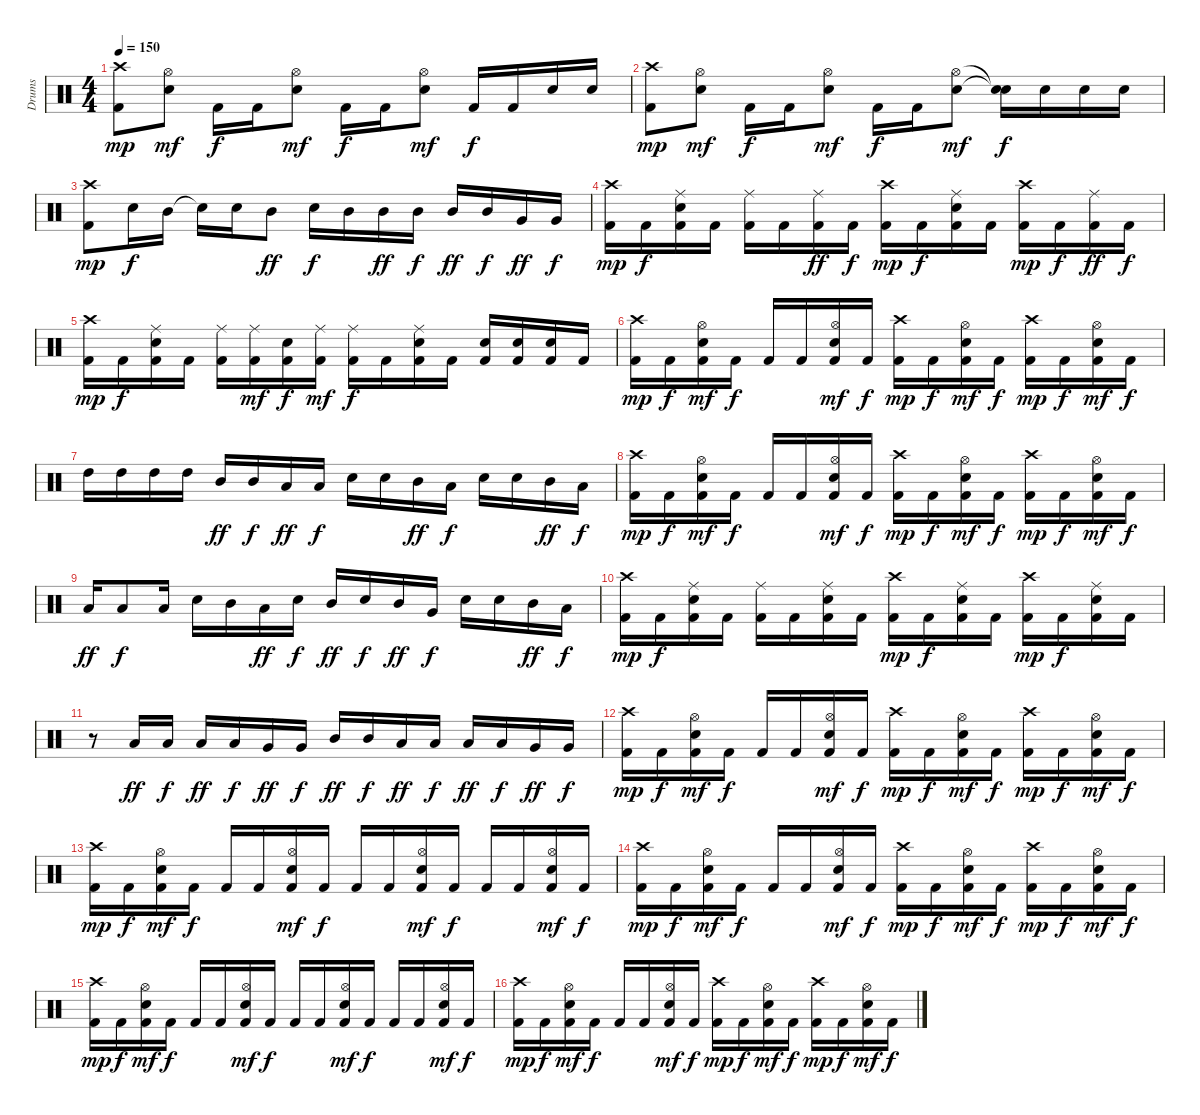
\track ("Drums" "Drums") {instrument percussion}
\staff {score}
\articulation defaults
\ts (4 4)
\tempo 150
\clef neutral
\ks c
("Crash high (hit)" "Kick (hit) 2").8{dy mp} ("Hi-Hat (open)" "Electric Snare (hit)").8{dy mf} "Kick (hit) 2".16{dy f} "Kick (hit) 2".16 ("Hi-Hat (open)" "Electric Snare (hit)").8{dy mf} "Kick (hit) 2".16{dy f} "Kick (hit) 2".16 ("Hi-Hat (open)" "Electric Snare (hit)").8{dy mf} "Kick (hit) 2".16{dy f} "Kick (hit) 2".16 "Electric Snare (hit)".16 "Electric Snare (hit)".16 |
("Crash high (hit)" "Kick (hit) 2").8{dy mp} ("Hi-Hat (open)" "Electric Snare (hit)").8{dy mf} "Kick (hit) 2".16{dy f} "Kick (hit) 2".16 ("Hi-Hat (open)" "Electric Snare (hit)").8{dy mf} "Kick (hit) 2".16{dy f} "Kick (hit) 2".16 ("Hi-Hat (open)" "Electric Snare (hit)").8{dy mf} ("Snare (hit)"{t} "Snare (hit)"{t}).16{dy f} "Electric Snare (hit)".16 "Electric Snare (hit)".16 "Electric Snare (hit)".16 |
("Crash high (hit)" "Kick (hit) 2").8{dy mp} "Electric Snare (hit)".16{dy f} "Mid Tom (hit)".16 "Snare (hit)"{t}.16 "Electric Snare (hit)".16 "Mid Tom (hit)".8{dy ff} "Electric Snare (hit)".16{dy f} "Mid Tom (hit)".16 "Mid Tom (hit)".16{dy ff} "Mid Tom (hit)".16{dy f} "Mid Tom (hit)".16{dy ff} "Mid Tom (hit)".16{dy f} "Very Low Tom (hit)".16{dy ff} "Very Low Tom (hit)".16{dy f} |
("Crash high (hit)" "Kick (hit) 2").16{dy mp} "Kick (hit) 2".16{dy f} ("Ride (middle)" "Electric Snare (hit)" "Kick (hit) 2").16 "Kick (hit) 2".16 ("Ride (middle)" "Kick (hit) 2").16 "Kick (hit) 2".16 ("Ride (middle)" "Kick (hit) 2").16{dy ff} "Kick (hit) 2".16{dy f} ("Crash high (hit)" "Kick (hit) 2").16{dy mp} "Kick (hit) 2".16{dy f} ("Ride (middle)" "Electric Snare (hit)" "Kick (hit) 2").16 "Kick (hit) 2".16 ("Crash high (hit)" "Kick (hit) 2").16{dy mp} "Kick (hit) 2".16{dy f} ("Ride (middle)" "Kick (hit) 2").16{dy ff} "Kick (hit) 2".16{dy f} |
("Crash high (hit)" "Kick (hit) 2").16{dy mp} "Kick (hit) 2".16{dy f} ("Ride (middle)" "Electric Snare (hit)" "Kick (hit) 2").16 "Kick (hit) 2".16 ("Ride (middle)" "Kick (hit) 2").16 ("Ride (middle)" "Kick (hit) 2").16{dy mf} ("Electric Snare (hit)" "Kick (hit) 2").16{dy f} ("Ride (middle)" "Kick (hit) 2").16{dy mf} ("Ride (middle)" "Kick (hit) 2").16{dy f} "Kick (hit) 2".16 ("Ride (middle)" "Electric Snare (hit)" "Kick (hit) 2").16 "Kick (hit) 2".16 ("Electric Snare (hit)" "Kick (hit) 2").16 ("Electric Snare (hit)" "Kick (hit) 2").16 ("Electric Snare (hit)" "Kick (hit) 2").16 "Kick (hit) 2".16 |
("Crash high (hit)" "Kick (hit) 2").16{dy mp} "Kick (hit) 2".16{dy f} ("Hi-Hat (open)" "Electric Snare (hit)" "Kick (hit) 2").16{dy mf} "Kick (hit) 2".16{dy f} "Kick (hit) 2".16 "Kick (hit) 2".16 ("Hi-Hat (open)" "Electric Snare (hit)" "Kick (hit) 2").16{dy mf} "Kick (hit) 2".16{dy f} ("Crash high (hit)" "Kick (hit) 2").16{dy mp} "Kick (hit) 2".16{dy f} ("Hi-Hat (open)" "Electric Snare (hit)" "Kick (hit) 2").16{dy mf} "Kick (hit) 2".16{dy f} ("Crash high (hit)" "Kick (hit) 2").16{dy mp} "Kick (hit) 2".16{dy f} ("Hi-Hat (open)" "Electric Snare (hit)" "Kick (hit) 2").16{dy mf} "Kick (hit) 2".16{dy f} |
"High Tom (hit)".16 "High Tom (hit)".16 "High Tom (hit)".16 "High Tom (hit)".16 "Mid Tom (hit)".16{dy ff} "Mid Tom (hit)".16{dy f} "Low Tom (hit)".16{dy ff} "Low Tom (hit)".16{dy f} "Electric Snare (hit)".16 "Electric Snare (hit)".16 "Mid Tom (hit)".16{dy ff} "Low Tom (hit)".16{dy f} "Electric Snare (hit)".16 "Electric Snare (hit)".16 "Mid Tom (hit)".16{dy ff} "Low Tom (hit)".16{dy f} |
("Crash high (hit)" "Kick (hit) 2").16{dy mp} "Kick (hit) 2".16{dy f} ("Hi-Hat (open)" "Electric Snare (hit)" "Kick (hit) 2").16{dy mf} "Kick (hit) 2".16{dy f} "Kick (hit) 2".16 "Kick (hit) 2".16 ("Hi-Hat (open)" "Electric Snare (hit)" "Kick (hit) 2").16{dy mf} "Kick (hit) 2".16{dy f} ("Crash high (hit)" "Kick (hit) 2").16{dy mp} "Kick (hit) 2".16{dy f} ("Hi-Hat (open)" "Electric Snare (hit)" "Kick (hit) 2").16{dy mf} "Kick (hit) 2".16{dy f} ("Crash high (hit)" "Kick (hit) 2").16{dy mp} "Kick (hit) 2".16{dy f} ("Hi-Hat (open)" "Electric Snare (hit)" "Kick (hit) 2").16{dy mf} "Kick (hit) 2".16{dy f} |
"Low Tom (hit)".16{dy ff} "Low Tom (hit)".8{dy f} "Low Tom (hit)".16 "Electric Snare (hit)".16 "Mid Tom (hit)".16 "Low Tom (hit)".16{dy ff} "Electric Snare (hit)".16{dy f} "Mid Tom (hit)".16{dy ff} "Electric Snare (hit)".16{dy f} "Mid Tom (hit)".16{dy ff} "Very Low Tom (hit)".16{dy f} "Electric Snare (hit)".16 "Electric Snare (hit)".16 "Mid Tom (hit)".16{dy ff} "Low Tom (hit)".16{dy f} |
("Crash high (hit)" "Kick (hit) 2").16{dy mp} "Kick (hit) 2".16{dy f} ("Ride (middle)" "Electric Snare (hit)" "Kick (hit) 2").16 "Kick (hit) 2".16 ("Ride (middle)" "Kick (hit) 2").16 "Kick (hit) 2".16 ("Ride (middle)" "Electric Snare (hit)" "Kick (hit) 2").16 "Kick (hit) 2".16 ("Crash high (hit)" "Kick (hit) 2").16{dy mp} "Kick (hit) 2".16{dy f} ("Ride (middle)" "Electric Snare (hit)" "Kick (hit) 2").16 "Kick (hit) 2".16 ("Crash high (hit)" "Kick (hit) 2").16{dy mp} "Kick (hit) 2".16{dy f} ("Ride (middle)" "Electric Snare (hit)" "Kick (hit) 2").16 "Kick (hit) 2".16 |
r.8 "Low Tom (hit)".16{dy ff} "Low Tom (hit)".16{dy f} "Low Tom (hit)".16{dy ff} "Low Tom (hit)".16{dy f} "Very Low Tom (hit)".16{dy ff} "Very Low Tom (hit)".16{dy f} "Mid Tom (hit)".16{dy ff} "Mid Tom (hit)".16{dy f} "Low Tom (hit)".16{dy ff} "Low Tom (hit)".16{dy f} "Low Tom (hit)".16{dy ff} "Low Tom (hit)".16{dy f} "Very Low Tom (hit)".16{dy ff} "Very Low Tom (hit)".16{dy f} |
("Crash high (hit)" "Kick (hit) 2").16{dy mp} "Kick (hit) 2".16{dy f} ("Hi-Hat (open)" "Electric Snare (hit)" "Kick (hit) 2").16{dy mf} "Kick (hit) 2".16{dy f} "Kick (hit) 2".16 "Kick (hit) 2".16 ("Hi-Hat (open)" "Electric Snare (hit)" "Kick (hit) 2").16{dy mf} "Kick (hit) 2".16{dy f} ("Crash high (hit)" "Kick (hit) 2").16{dy mp} "Kick (hit) 2".16{dy f} ("Hi-Hat (open)" "Electric Snare (hit)" "Kick (hit) 2").16{dy mf} "Kick (hit) 2".16{dy f} ("Crash high (hit)" "Kick (hit) 2").16{dy mp} "Kick (hit) 2".16{dy f} ("Hi-Hat (open)" "Electric Snare (hit)" "Kick (hit) 2").16{dy mf} "Kick (hit) 2".16{dy f} |
("Crash high (hit)" "Kick (hit) 2").16{dy mp} "Kick (hit) 2".16{dy f} ("Hi-Hat (open)" "Electric Snare (hit)" "Kick (hit) 2").16{dy mf} "Kick (hit) 2".16{dy f} "Kick (hit) 2".16 "Kick (hit) 2".16 ("Hi-Hat (open)" "Electric Snare (hit)" "Kick (hit) 2").16{dy mf} "Kick (hit) 2".16{dy f} "Kick (hit) 2".16 "Kick (hit) 2".16 ("Hi-Hat (open)" "Electric Snare (hit)" "Kick (hit) 2").16{dy mf} "Kick (hit) 2".16{dy f} "Kick (hit) 2".16 "Kick (hit) 2".16 ("Hi-Hat (open)" "Electric Snare (hit)" "Kick (hit) 2").16{dy mf} "Kick (hit) 2".16{dy f} |
("Crash high (hit)" "Kick (hit) 2").16{dy mp} "Kick (hit) 2".16{dy f} ("Hi-Hat (open)" "Electric Snare (hit)" "Kick (hit) 2").16{dy mf} "Kick (hit) 2".16{dy f} "Kick (hit) 2".16 "Kick (hit) 2".16 ("Hi-Hat (open)" "Electric Snare (hit)" "Kick (hit) 2").16{dy mf} "Kick (hit) 2".16{dy f} ("Crash high (hit)" "Kick (hit) 2").16{dy mp} "Kick (hit) 2".16{dy f} ("Hi-Hat (open)" "Electric Snare (hit)" "Kick (hit) 2").16{dy mf} "Kick (hit) 2".16{dy f} ("Crash high (hit)" "Kick (hit) 2").16{dy mp} "Kick (hit) 2".16{dy f} ("Hi-Hat (open)" "Electric Snare (hit)" "Kick (hit) 2").16{dy mf} "Kick (hit) 2".16{dy f} |
("Crash high (hit)" "Kick (hit) 2").16{dy mp} "Kick (hit) 2".16{dy f} ("Hi-Hat (open)" "Electric Snare (hit)" "Kick (hit) 2").16{dy mf} "Kick (hit) 2".16{dy f} "Kick (hit) 2".16 "Kick (hit) 2".16 ("Hi-Hat (open)" "Electric Snare (hit)" "Kick (hit) 2").16{dy mf} "Kick (hit) 2".16{dy f} "Kick (hit) 2".16 "Kick (hit) 2".16 ("Hi-Hat (open)" "Electric Snare (hit)" "Kick (hit) 2").16{dy mf} "Kick (hit) 2".16{dy f} "Kick (hit) 2".16 "Kick (hit) 2".16 ("Hi-Hat (open)" "Electric Snare (hit)" "Kick (hit) 2").16{dy mf} "Kick (hit) 2".16{dy f} |
("Crash high (hit)" "Kick (hit) 2").16{dy mp} "Kick (hit) 2".16{dy f} ("Hi-Hat (open)" "Electric Snare (hit)" "Kick (hit) 2").16{dy mf} "Kick (hit) 2".16{dy f} "Kick (hit) 2".16 "Kick (hit) 2".16 ("Hi-Hat (open)" "Electric Snare (hit)" "Kick (hit) 2").16{dy mf} "Kick (hit) 2".16{dy f} ("Crash high (hit)" "Kick (hit) 2").16{dy mp} "Kick (hit) 2".16{dy f} ("Hi-Hat (open)" "Electric Snare (hit)" "Kick (hit) 2").16{dy mf} "Kick (hit) 2".16{dy f} ("Crash high (hit)" "Kick (hit) 2").16{dy mp} "Kick (hit) 2".16{dy f} ("Hi-Hat (open)" "Electric Snare (hit)" "Kick (hit) 2").16{dy mf} "Kick (hit) 2".16{dy f}
